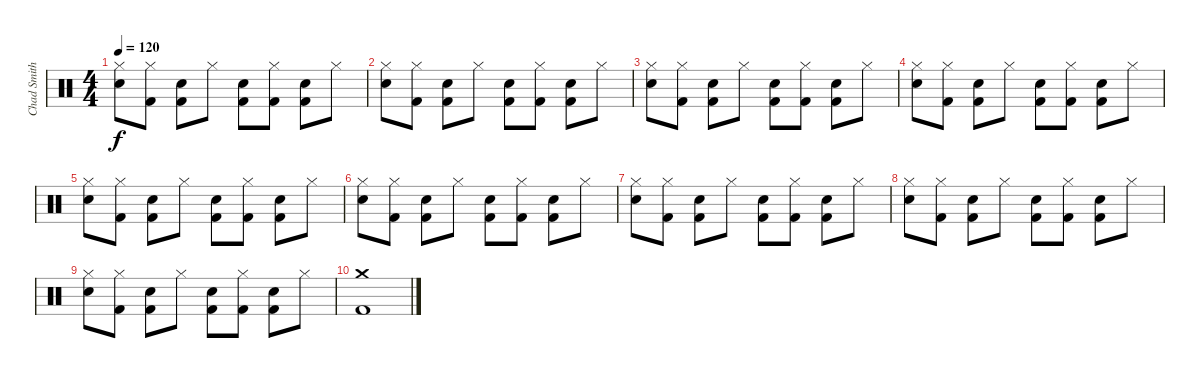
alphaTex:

\track ("Chad Smith" "Chad Smith") {instrument percussion}
\staff {score}
\articulation defaults
\ts (4 4)
\tempo 120
\clef neutral
\ks c
("Electric Snare (hit)" "Hi-Hat (closed)").8{dy f} ("Hi-Hat (closed)" "Kick (hit) 2").8 ("Electric Snare (hit)" "Kick (hit) 2").8 "Hi-Hat (closed)".8 ("Electric Snare (hit)" "Kick (hit) 2").8 ("Hi-Hat (closed)" "Kick (hit) 2").8 ("Electric Snare (hit)" "Kick (hit) 2").8 "Hi-Hat (closed)".8 |
("Electric Snare (hit)" "Hi-Hat (closed)").8 ("Hi-Hat (closed)" "Kick (hit) 2").8 ("Electric Snare (hit)" "Kick (hit) 2").8 "Hi-Hat (closed)".8 ("Electric Snare (hit)" "Kick (hit) 2").8 ("Hi-Hat (closed)" "Kick (hit) 2").8 ("Electric Snare (hit)" "Kick (hit) 2").8 "Hi-Hat (closed)".8 |
("Electric Snare (hit)" "Hi-Hat (closed)").8 ("Hi-Hat (closed)" "Kick (hit) 2").8 ("Electric Snare (hit)" "Kick (hit) 2").8 "Hi-Hat (closed)".8 ("Electric Snare (hit)" "Kick (hit) 2").8 ("Hi-Hat (closed)" "Kick (hit) 2").8 ("Electric Snare (hit)" "Kick (hit) 2").8 "Hi-Hat (closed)".8 |
("Electric Snare (hit)" "Hi-Hat (closed)").8 ("Hi-Hat (closed)" "Kick (hit) 2").8 ("Electric Snare (hit)" "Kick (hit) 2").8 "Hi-Hat (closed)".8 ("Electric Snare (hit)" "Kick (hit) 2").8 ("Hi-Hat (closed)" "Kick (hit) 2").8 ("Electric Snare (hit)" "Kick (hit) 2").8 "Hi-Hat (closed)".8 |
("Electric Snare (hit)" "Hi-Hat (closed)").8 ("Hi-Hat (closed)" "Kick (hit) 2").8 ("Electric Snare (hit)" "Kick (hit) 2").8 "Hi-Hat (closed)".8 ("Electric Snare (hit)" "Kick (hit) 2").8 ("Hi-Hat (closed)" "Kick (hit) 2").8 ("Electric Snare (hit)" "Kick (hit) 2").8 "Hi-Hat (closed)".8 |
("Electric Snare (hit)" "Hi-Hat (closed)").8 ("Hi-Hat (closed)" "Kick (hit) 2").8 ("Electric Snare (hit)" "Kick (hit) 2").8 "Hi-Hat (closed)".8 ("Electric Snare (hit)" "Kick (hit) 2").8 ("Hi-Hat (closed)" "Kick (hit) 2").8 ("Electric Snare (hit)" "Kick (hit) 2").8 "Hi-Hat (closed)".8 |
("Electric Snare (hit)" "Hi-Hat (closed)").8 ("Hi-Hat (closed)" "Kick (hit) 2").8 ("Electric Snare (hit)" "Kick (hit) 2").8 "Hi-Hat (closed)".8 ("Electric Snare (hit)" "Kick (hit) 2").8 ("Hi-Hat (closed)" "Kick (hit) 2").8 ("Electric Snare (hit)" "Kick (hit) 2").8 "Hi-Hat (closed)".8 |
("Electric Snare (hit)" "Hi-Hat (closed)").8 ("Hi-Hat (closed)" "Kick (hit) 2").8 ("Electric Snare (hit)" "Kick (hit) 2").8 "Hi-Hat (closed)".8 ("Electric Snare (hit)" "Kick (hit) 2").8 ("Hi-Hat (closed)" "Kick (hit) 2").8 ("Electric Snare (hit)" "Kick (hit) 2").8 "Hi-Hat (closed)".8 |
("Electric Snare (hit)" "Hi-Hat (closed)").8 ("Hi-Hat (closed)" "Kick (hit) 2").8 ("Electric Snare (hit)" "Kick (hit) 2").8 "Hi-Hat (closed)".8 ("Electric Snare (hit)" "Kick (hit) 2").8 ("Hi-Hat (closed)" "Kick (hit) 2").8 ("Electric Snare (hit)" "Kick (hit) 2").8 "Hi-Hat (closed)".8 |
("Crash medium (hit)" "Kick (hit) 2").1
